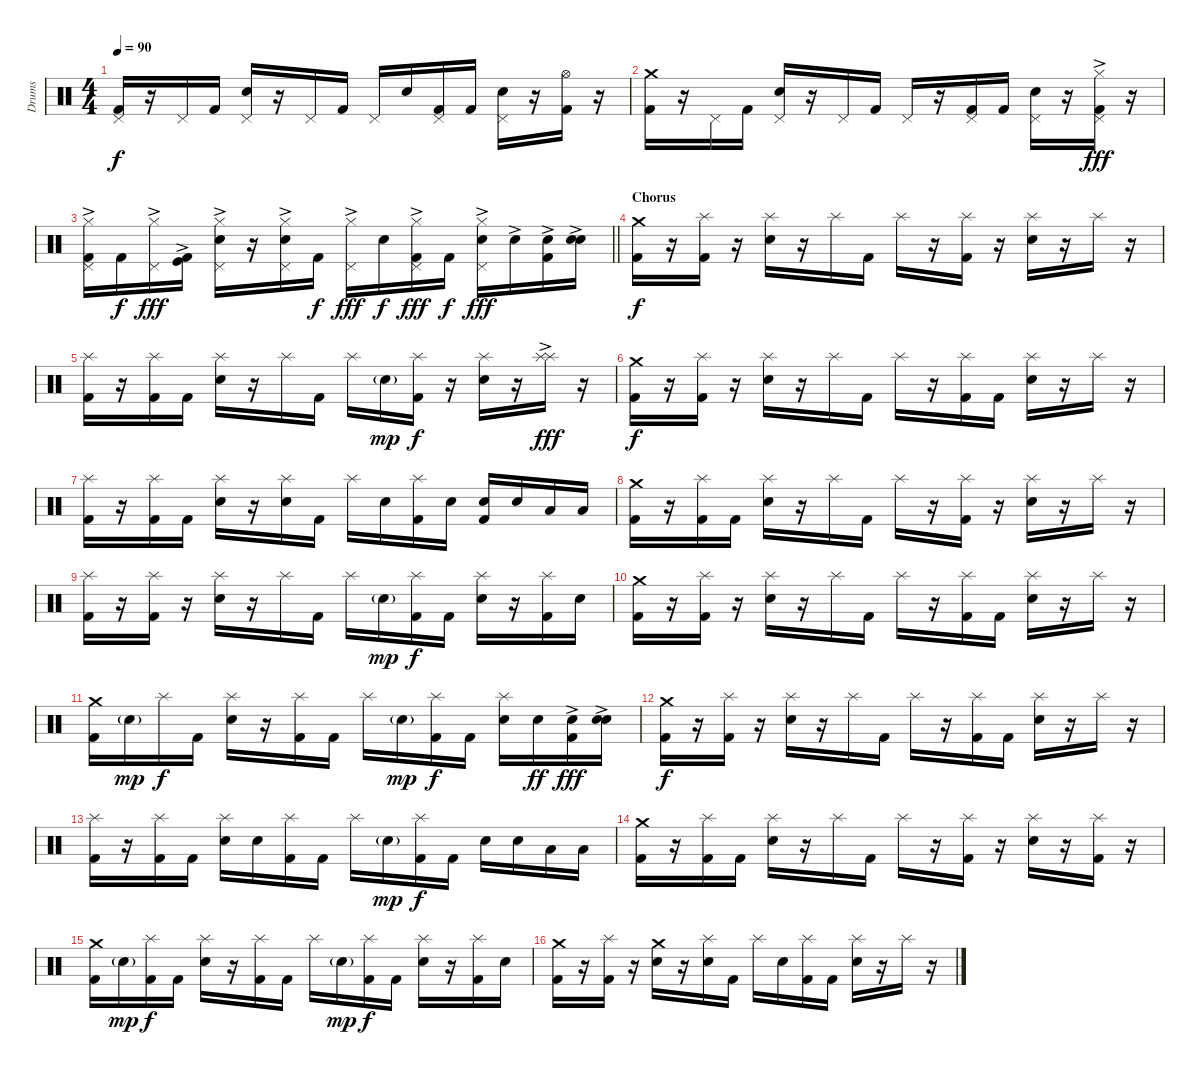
\track ("Drums" "Drums") {instrument percussion}
\staff {score}
\articulation defaults
\ts (4 4)
\tempo 90
\clef neutral
\ks c
("Pedal Hi-Hat (hit)" "Kick (hit) 2").16{dy f} r.16 "Pedal Hi-Hat (hit)".16 "Kick (hit) 2".16 ("Pedal Hi-Hat (hit)" "Electric Snare (hit)").16 r.16 "Pedal Hi-Hat (hit)".16 "Kick (hit) 2".16 "Pedal Hi-Hat (hit)".16 "Electric Snare (hit)".16 ("Pedal Hi-Hat (hit)" "Kick (hit) 2").16 "Kick (hit) 2".16 ("Pedal Hi-Hat (hit)" "Electric Snare (hit)").16 r.16 ("Hi-Hat (open)" "Kick (hit) 2").16 r.16 |
("Crash medium (hit)" "Kick (hit) 2").16 r.16 "Pedal Hi-Hat (hit)".16 "Kick (hit) 2".16 ("Pedal Hi-Hat (hit)" "Electric Snare (hit)").16 r.16 "Pedal Hi-Hat (hit)".16 "Kick (hit) 2".16 "Pedal Hi-Hat (hit)".16 r.16 ("Pedal Hi-Hat (hit)" "Kick (hit) 2").16 "Kick (hit) 2".16 ("Pedal Hi-Hat (hit)" "Electric Snare (hit)").16 r.16 ("Hi-Hat (closed)"{ac} "Pedal Hi-Hat (hit)"{ac} "Kick (hit) 2").16{dy fff} r.16 |
\barLineRight lightlight
("Hi-Hat (closed)"{ac} "Pedal Hi-Hat (hit)"{ac} "Kick (hit) 2").16 "Kick (hit) 2".16{dy f} ("Hi-Hat (closed)"{ac} "Pedal Hi-Hat (hit)"{ac}).16{dy fff} ("Kick (hit)"{ac} "Kick (hit) 2"{ac}).16 ("Hi-Hat (closed)"{ac} "Pedal Hi-Hat (hit)"{ac} "Electric Snare (hit)").16 r.16 ("Hi-Hat (closed)"{ac} "Pedal Hi-Hat (hit)"{ac} "Electric Snare (hit)").16 "Kick (hit) 2".16{dy f} ("Hi-Hat (closed)"{ac} "Pedal Hi-Hat (hit)"{ac}).16{dy fff} "Electric Snare (hit)".16{dy f} ("Hi-Hat (closed)"{ac} "Pedal Hi-Hat (hit)"{ac} "Kick (hit) 2").16{dy fff} "Kick (hit) 2".16{dy f} ("Hi-Hat (closed)"{ac} "Pedal Hi-Hat (hit)"{ac} "Electric Snare (hit)").16{dy fff} "Electric Snare (hit)"{ac}.16 ("Electric Snare (hit)"{ac} "Kick (hit) 2").16 ("Snare (hit) 2"{ac} "Electric Snare (hit)"{ac}).16 |
\section ("" "Chorus")
("Crash medium (hit)" "Kick (hit) 2").16{dy f} r.16 ("Splash (hit)" "Kick (hit) 2").16 r.16 ("Splash (hit)" "Electric Snare (hit)").16 r.16 "Splash (hit)".16 "Kick (hit) 2".16 "Splash (hit)".16 r.16 ("Splash (hit)" "Kick (hit) 2").16 r.16 ("Splash (hit)" "Electric Snare (hit)").16 r.16 "Splash (hit)".16 r.16 |
("Splash (hit)" "Kick (hit) 2").16 r.16 ("Splash (hit)" "Kick (hit) 2").16 "Kick (hit) 2".16 ("Splash (hit)" "Electric Snare (hit)").16 r.16 "Splash (hit)".16 "Kick (hit) 2".16 "Splash (hit)".16 "Electric Snare (hit)"{g}.16{dy mp} ("Splash (hit)" "Kick (hit) 2").16{dy f} r.16 ("Splash (hit)" "Electric Snare (hit)").16 r.16 ("Splash (hit)"{ac} "Splash (hit)"{ac}).16{dy fff} r.16 |
("Crash medium (hit)" "Kick (hit) 2").16{dy f} r.16 ("Splash (hit)" "Kick (hit) 2").16 r.16 ("Splash (hit)" "Electric Snare (hit)").16 r.16 "Splash (hit)".16 "Kick (hit) 2".16 "Splash (hit)".16 r.16 ("Splash (hit)" "Kick (hit) 2").16 "Kick (hit) 2".16 ("Splash (hit)" "Electric Snare (hit)").16 r.16 "Splash (hit)".16 r.16 |
("Splash (hit)" "Kick (hit) 2").16 r.16 ("Splash (hit)" "Kick (hit) 2").16 "Kick (hit) 2".16 ("Splash (hit)" "Electric Snare (hit)").16 r.16 ("Splash (hit)" "Electric Snare (hit)").16 "Kick (hit) 2".16 "Splash (hit)".16 "Electric Snare (hit)".16 ("Splash (hit)" "Kick (hit) 2").16 "Electric Snare (hit)".16 ("Electric Snare (hit)" "Kick (hit) 2").16 "Electric Snare (hit)".16 "Low Tom (hit)".16 "Low Tom (hit)".16 |
("Crash medium (hit)" "Kick (hit) 2").16 r.16 ("Splash (hit)" "Kick (hit) 2").16 "Kick (hit) 2".16 ("Splash (hit)" "Electric Snare (hit)").16 r.16 "Splash (hit)".16 "Kick (hit) 2".16 "Splash (hit)".16 r.16 ("Splash (hit)" "Kick (hit) 2").16 r.16 ("Splash (hit)" "Electric Snare (hit)").16 r.16 "Splash (hit)".16 r.16 |
("Splash (hit)" "Kick (hit) 2").16 r.16 ("Splash (hit)" "Kick (hit) 2").16 r.16 ("Splash (hit)" "Electric Snare (hit)").16 r.16 "Splash (hit)".16 "Kick (hit) 2".16 "Splash (hit)".16 "Electric Snare (hit)"{g}.16{dy mp} ("Splash (hit)" "Kick (hit) 2").16{dy f} "Kick (hit) 2".16 ("Splash (hit)" "Electric Snare (hit)").16 r.16 ("Splash (hit)" "Kick (hit) 2").16 "Electric Snare (hit)".16 |
("Crash medium (hit)" "Kick (hit) 2").16 r.16 ("Splash (hit)" "Kick (hit) 2").16 r.16 ("Splash (hit)" "Electric Snare (hit)").16 r.16 "Splash (hit)".16 "Kick (hit) 2".16 "Splash (hit)".16 r.16 ("Splash (hit)" "Kick (hit) 2").16 "Kick (hit) 2".16 ("Splash (hit)" "Electric Snare (hit)").16 r.16 "Splash (hit)".16 r.16 |
("Crash medium (hit)" "Kick (hit) 2").16 "Electric Snare (hit)"{g}.16{dy mp} "Splash (hit)".16{dy f} "Kick (hit) 2".16 ("Splash (hit)" "Electric Snare (hit)").16 r.16 ("Splash (hit)" "Kick (hit) 2").16 "Kick (hit) 2".16 "Splash (hit)".16 "Electric Snare (hit)"{g}.16{dy mp} ("Splash (hit)" "Kick (hit) 2").16{dy f} "Kick (hit) 2".16 ("Splash (hit)" "Electric Snare (hit)").16 "Electric Snare (hit)".16{dy ff} ("Electric Snare (hit)"{ac} "Kick (hit) 2").16{dy fff} ("Snare (hit) 2" "Electric Snare (hit)"{ac}).16 |
("Crash medium (hit)" "Kick (hit) 2").16{dy f} r.16 ("Splash (hit)" "Kick (hit) 2").16 r.16 ("Splash (hit)" "Electric Snare (hit)").16 r.16 "Splash (hit)".16 "Kick (hit) 2".16 "Splash (hit)".16 r.16 ("Splash (hit)" "Kick (hit) 2").16 "Kick (hit) 2".16 ("Splash (hit)" "Electric Snare (hit)").16 r.16 "Splash (hit)".16 r.16 |
("Splash (hit)" "Kick (hit) 2").16 r.16 ("Splash (hit)" "Kick (hit) 2").16 "Kick (hit) 2".16 ("Splash (hit)" "Electric Snare (hit)").16 "Electric Snare (hit)".16 ("Splash (hit)" "Kick (hit) 2").16 "Kick (hit) 2".16 "Splash (hit)".16 "Electric Snare (hit)"{g}.16{dy mp} ("Splash (hit)" "Kick (hit) 2").16{dy f} "Kick (hit) 2".16 "Electric Snare (hit)".16 "Electric Snare (hit)".16 "Low Tom (hit)".16 "Low Tom (hit)".16 |
("Crash medium (hit)" "Kick (hit) 2").16 r.16 ("Splash (hit)" "Kick (hit) 2").16 "Kick (hit) 2".16 ("Splash (hit)" "Electric Snare (hit)").16 r.16 "Splash (hit)".16 "Kick (hit) 2".16 "Splash (hit)".16 r.16 ("Splash (hit)" "Kick (hit) 2").16 r.16 ("Splash (hit)" "Electric Snare (hit)").16 r.16 ("Splash (hit)" "Kick (hit) 2").16 r.16 |
("Crash medium (hit)" "Kick (hit) 2").16 "Electric Snare (hit)"{g}.16{dy mp} ("Splash (hit)" "Kick (hit) 2").16{dy f} "Kick (hit) 2".16 ("Splash (hit)" "Electric Snare (hit)").16 r.16 ("Splash (hit)" "Kick (hit) 2").16 "Kick (hit) 2".16 "Splash (hit)".16 "Electric Snare (hit)"{g}.16{dy mp} ("Splash (hit)" "Kick (hit) 2").16{dy f} "Kick (hit) 2".16 ("Splash (hit)" "Electric Snare (hit)").16 r.16 ("Splash (hit)" "Kick (hit) 2").16 "Snare (hit) 2".16 |
("Crash medium (hit)" "Kick (hit) 2").16 r.16 ("Splash (hit)" "Kick (hit) 2").16 r.16 ("Crash medium (hit)" "Electric Snare (hit)").16 r.16 ("Splash (hit)" "Electric Snare (hit)").16 "Kick (hit) 2".16 "Splash (hit)".16 "Electric Snare (hit)".16 ("Splash (hit)" "Kick (hit) 2").16 "Kick (hit) 2".16 ("Splash (hit)" "Electric Snare (hit)").16 r.16 "Splash (hit)".16 r.16
